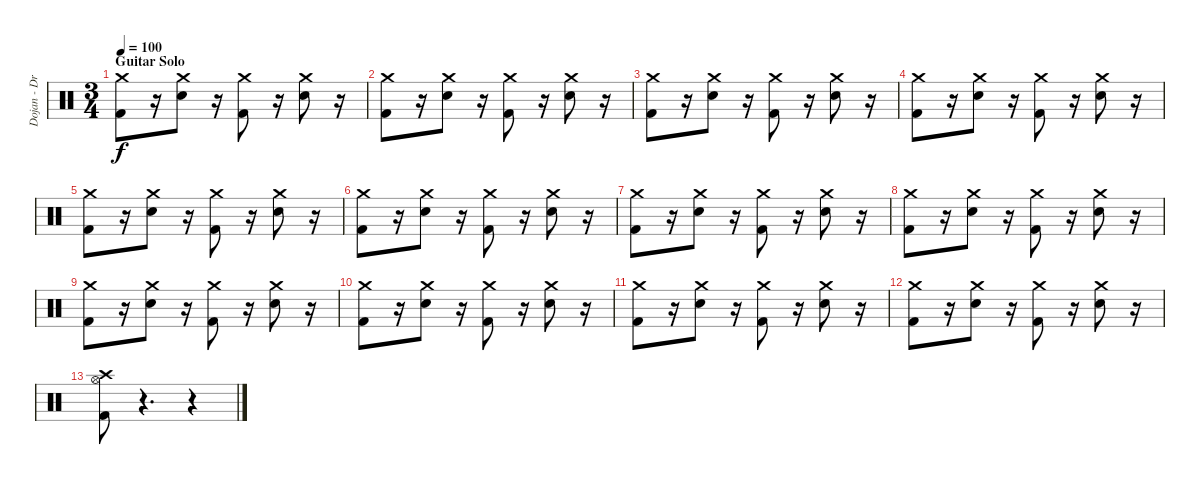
\track ("Dojan - Drums" "Dojan - Dr") {instrument percussion}
\staff {score}
\articulation defaults
\ts (3 4)
\section ("" "Guitar Solo")
\tempo 100
\clef neutral
\ks c
("Crash medium (hit)" "Kick (hit) 2").8{dy f} r.16 ("Crash medium (hit)" "Snare (hit) 2").8 r.16 ("Crash medium (hit)" "Kick (hit) 2").8 r.16 ("Crash medium (hit)" "Snare (hit) 2").8 r.16 |
("Crash medium (hit)" "Kick (hit) 2").8 r.16 ("Crash medium (hit)" "Snare (hit) 2").8 r.16 ("Crash medium (hit)" "Kick (hit) 2").8 r.16 ("Crash medium (hit)" "Snare (hit) 2").8 r.16 |
("Crash medium (hit)" "Kick (hit) 2").8 r.16 ("Crash medium (hit)" "Snare (hit) 2").8 r.16 ("Crash medium (hit)" "Kick (hit) 2").8 r.16 ("Crash medium (hit)" "Snare (hit) 2").8 r.16 |
("Crash medium (hit)" "Kick (hit) 2").8 r.16 ("Crash medium (hit)" "Snare (hit) 2").8 r.16 ("Crash medium (hit)" "Kick (hit) 2").8 r.16 ("Crash medium (hit)" "Snare (hit) 2").8 r.16 |
("Crash medium (hit)" "Kick (hit) 2").8 r.16 ("Crash medium (hit)" "Snare (hit) 2").8 r.16 ("Crash medium (hit)" "Kick (hit) 2").8 r.16 ("Crash medium (hit)" "Snare (hit) 2").8 r.16 |
("Crash medium (hit)" "Kick (hit) 2").8 r.16 ("Crash medium (hit)" "Snare (hit) 2").8 r.16 ("Crash medium (hit)" "Kick (hit) 2").8 r.16 ("Crash medium (hit)" "Snare (hit) 2").8 r.16 |
("Crash medium (hit)" "Kick (hit) 2").8 r.16 ("Crash medium (hit)" "Snare (hit) 2").8 r.16 ("Crash medium (hit)" "Kick (hit) 2").8 r.16 ("Crash medium (hit)" "Snare (hit) 2").8 r.16 |
("Crash medium (hit)" "Kick (hit) 2").8 r.16 ("Crash medium (hit)" "Snare (hit) 2").8 r.16 ("Crash medium (hit)" "Kick (hit) 2").8 r.16 ("Crash medium (hit)" "Snare (hit) 2").8 r.16 |
("Crash medium (hit)" "Kick (hit) 2").8 r.16 ("Crash medium (hit)" "Snare (hit) 2").8 r.16 ("Crash medium (hit)" "Kick (hit) 2").8 r.16 ("Crash medium (hit)" "Snare (hit) 2").8 r.16 |
("Crash medium (hit)" "Kick (hit) 2").8 r.16 ("Crash medium (hit)" "Snare (hit) 2").8 r.16 ("Crash medium (hit)" "Kick (hit) 2").8 r.16 ("Crash medium (hit)" "Snare (hit) 2").8 r.16 |
("Crash medium (hit)" "Kick (hit) 2").8 r.16 ("Crash medium (hit)" "Snare (hit) 2").8 r.16 ("Crash medium (hit)" "Kick (hit) 2").8 r.16 ("Crash medium (hit)" "Snare (hit) 2").8 r.16 |
("Crash medium (hit)" "Kick (hit) 2").8 r.16 ("Crash medium (hit)" "Snare (hit) 2").8 r.16 ("Crash medium (hit)" "Kick (hit) 2").8 r.16 ("Crash medium (hit)" "Snare (hit) 2").8 r.16 |
("Crash high (hit)" "Hi-Hat (open)" "Kick (hit) 2").8 r.4{d} r.4
